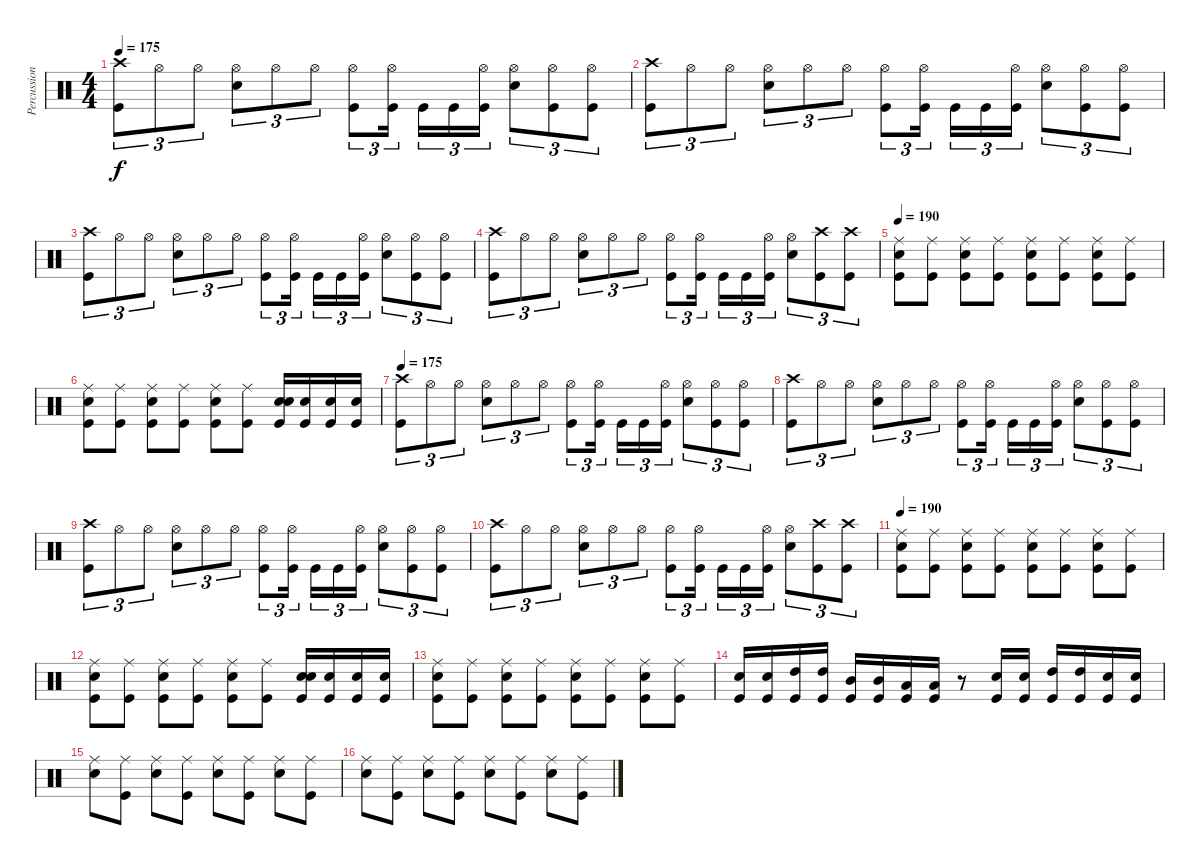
\track ("Percussioni" "Percussion") {instrument percussion}
\staff {score}
\articulation defaults
\ts (4 4)
\tempo 175
\clef neutral
\ks c
("Crash high (hit)" "Kick (hit)").8{tu (3 2) dy f} "Hi-Hat (open)".8{tu (3 2)} "Hi-Hat (open)".8{tu (3 2)} ("Hi-Hat (open)" "Electric Snare (hit)").8{tu (3 2)} "Hi-Hat (open)".8{tu (3 2)} "Hi-Hat (open)".8{tu (3 2)} ("Hi-Hat (open)" "Kick (hit)").8{tu (3 2)} ("Hi-Hat (open)" "Kick (hit)").16{tu (3 2)} "Kick (hit)".16{tu (3 2)} "Kick (hit)".16{tu (3 2)} ("Hi-Hat (open)" "Kick (hit)").16{tu (3 2)} ("Hi-Hat (open)" "Electric Snare (hit)").8{tu (3 2)} ("Hi-Hat (open)" "Kick (hit)").8{tu (3 2)} ("Hi-Hat (open)" "Kick (hit)").8{tu (3 2)} |
("Crash high (hit)" "Kick (hit)").8{tu (3 2)} "Hi-Hat (open)".8{tu (3 2)} "Hi-Hat (open)".8{tu (3 2)} ("Hi-Hat (open)" "Electric Snare (hit)").8{tu (3 2)} "Hi-Hat (open)".8{tu (3 2)} "Hi-Hat (open)".8{tu (3 2)} ("Hi-Hat (open)" "Kick (hit)").8{tu (3 2)} ("Hi-Hat (open)" "Kick (hit)").16{tu (3 2)} "Kick (hit)".16{tu (3 2)} "Kick (hit)".16{tu (3 2)} ("Hi-Hat (open)" "Kick (hit)").16{tu (3 2)} ("Hi-Hat (open)" "Electric Snare (hit)").8{tu (3 2)} ("Hi-Hat (open)" "Kick (hit)").8{tu (3 2)} ("Hi-Hat (open)" "Kick (hit)").8{tu (3 2)} |
("Crash high (hit)" "Kick (hit)").8{tu (3 2)} "Hi-Hat (open)".8{tu (3 2)} "Hi-Hat (open)".8{tu (3 2)} ("Hi-Hat (open)" "Electric Snare (hit)").8{tu (3 2)} "Hi-Hat (open)".8{tu (3 2)} "Hi-Hat (open)".8{tu (3 2)} ("Hi-Hat (open)" "Kick (hit)").8{tu (3 2)} ("Hi-Hat (open)" "Kick (hit)").16{tu (3 2)} "Kick (hit)".16{tu (3 2)} "Kick (hit)".16{tu (3 2)} ("Hi-Hat (open)" "Kick (hit)").16{tu (3 2)} ("Hi-Hat (open)" "Electric Snare (hit)").8{tu (3 2)} ("Hi-Hat (open)" "Kick (hit)").8{tu (3 2)} ("Hi-Hat (open)" "Kick (hit)").8{tu (3 2)} |
("Crash high (hit)" "Kick (hit)").8{tu (3 2)} "Hi-Hat (open)".8{tu (3 2)} "Hi-Hat (open)".8{tu (3 2)} ("Hi-Hat (open)" "Electric Snare (hit)").8{tu (3 2)} "Hi-Hat (open)".8{tu (3 2)} "Hi-Hat (open)".8{tu (3 2)} ("Hi-Hat (open)" "Kick (hit)").8{tu (3 2)} ("Hi-Hat (open)" "Kick (hit)").16{tu (3 2)} "Kick (hit)".16{tu (3 2)} "Kick (hit)".16{tu (3 2)} ("Hi-Hat (open)" "Kick (hit)").16{tu (3 2)} ("Hi-Hat (open)" "Electric Snare (hit)").8{tu (3 2)} ("Crash high (hit)" "Kick (hit)").8{tu (3 2)} ("Crash high (hit)" "Kick (hit)").8{tu (3 2)} |
\tempo 190
("Ride (middle)" "Electric Snare (hit)" "Kick (hit)").8 ("Ride (middle)" "Kick (hit)").8 ("Ride (middle)" "Electric Snare (hit)" "Kick (hit)").8 ("Ride (middle)" "Kick (hit)").8 ("Ride (middle)" "Electric Snare (hit)" "Kick (hit)").8 ("Ride (middle)" "Kick (hit)").8 ("Ride (middle)" "Electric Snare (hit)" "Kick (hit)").8 ("Ride (middle)" "Kick (hit)").8 |
("Ride (middle)" "Electric Snare (hit)" "Kick (hit)").8 ("Ride (middle)" "Kick (hit)").8 ("Ride (middle)" "Electric Snare (hit)" "Kick (hit)").8 ("Ride (middle)" "Kick (hit)").8 ("Ride (middle)" "Electric Snare (hit)" "Kick (hit)").8 ("Ride (middle)" "Kick (hit)").8 ("Electric Snare (hit)" "Electric Snare (hit)" "Kick (hit)").16 ("Electric Snare (hit)" "Kick (hit)").16 ("Snare (hit) 2" "Kick (hit)").16 ("Snare (hit) 2" "Kick (hit)").16 |
\tempo 175
("Crash high (hit)" "Kick (hit)").8{tu (3 2)} "Hi-Hat (open)".8{tu (3 2)} "Hi-Hat (open)".8{tu (3 2)} ("Hi-Hat (open)" "Electric Snare (hit)").8{tu (3 2)} "Hi-Hat (open)".8{tu (3 2)} "Hi-Hat (open)".8{tu (3 2)} ("Hi-Hat (open)" "Kick (hit)").8{tu (3 2)} ("Hi-Hat (open)" "Kick (hit)").16{tu (3 2)} "Kick (hit)".16{tu (3 2)} "Kick (hit)".16{tu (3 2)} ("Hi-Hat (open)" "Kick (hit)").16{tu (3 2)} ("Hi-Hat (open)" "Electric Snare (hit)").8{tu (3 2)} ("Hi-Hat (open)" "Kick (hit)").8{tu (3 2)} ("Hi-Hat (open)" "Kick (hit)").8{tu (3 2)} |
("Crash high (hit)" "Kick (hit)").8{tu (3 2)} "Hi-Hat (open)".8{tu (3 2)} "Hi-Hat (open)".8{tu (3 2)} ("Hi-Hat (open)" "Electric Snare (hit)").8{tu (3 2)} "Hi-Hat (open)".8{tu (3 2)} "Hi-Hat (open)".8{tu (3 2)} ("Hi-Hat (open)" "Kick (hit)").8{tu (3 2)} ("Hi-Hat (open)" "Kick (hit)").16{tu (3 2)} "Kick (hit)".16{tu (3 2)} "Kick (hit)".16{tu (3 2)} ("Hi-Hat (open)" "Kick (hit)").16{tu (3 2)} ("Hi-Hat (open)" "Electric Snare (hit)").8{tu (3 2)} ("Hi-Hat (open)" "Kick (hit)").8{tu (3 2)} ("Hi-Hat (open)" "Kick (hit)").8{tu (3 2)} |
("Crash high (hit)" "Kick (hit)").8{tu (3 2)} "Hi-Hat (open)".8{tu (3 2)} "Hi-Hat (open)".8{tu (3 2)} ("Hi-Hat (open)" "Electric Snare (hit)").8{tu (3 2)} "Hi-Hat (open)".8{tu (3 2)} "Hi-Hat (open)".8{tu (3 2)} ("Hi-Hat (open)" "Kick (hit)").8{tu (3 2)} ("Hi-Hat (open)" "Kick (hit)").16{tu (3 2)} "Kick (hit)".16{tu (3 2)} "Kick (hit)".16{tu (3 2)} ("Hi-Hat (open)" "Kick (hit)").16{tu (3 2)} ("Hi-Hat (open)" "Electric Snare (hit)").8{tu (3 2)} ("Hi-Hat (open)" "Kick (hit)").8{tu (3 2)} ("Hi-Hat (open)" "Kick (hit)").8{tu (3 2)} |
("Crash high (hit)" "Kick (hit)").8{tu (3 2)} "Hi-Hat (open)".8{tu (3 2)} "Hi-Hat (open)".8{tu (3 2)} ("Hi-Hat (open)" "Electric Snare (hit)").8{tu (3 2)} "Hi-Hat (open)".8{tu (3 2)} "Hi-Hat (open)".8{tu (3 2)} ("Hi-Hat (open)" "Kick (hit)").8{tu (3 2)} ("Hi-Hat (open)" "Kick (hit)").16{tu (3 2)} "Kick (hit)".16{tu (3 2)} "Kick (hit)".16{tu (3 2)} ("Hi-Hat (open)" "Kick (hit)").16{tu (3 2)} ("Hi-Hat (open)" "Electric Snare (hit)").8{tu (3 2)} ("Crash high (hit)" "Kick (hit)").8{tu (3 2)} ("Crash high (hit)" "Kick (hit)").8{tu (3 2)} |
\tempo 190
("Ride (middle)" "Electric Snare (hit)" "Kick (hit)").8 ("Ride (middle)" "Kick (hit)").8 ("Ride (middle)" "Electric Snare (hit)" "Kick (hit)").8 ("Ride (middle)" "Kick (hit)").8 ("Ride (middle)" "Electric Snare (hit)" "Kick (hit)").8 ("Ride (middle)" "Kick (hit)").8 ("Ride (middle)" "Electric Snare (hit)" "Kick (hit)").8 ("Ride (middle)" "Kick (hit)").8 |
("Ride (middle)" "Electric Snare (hit)" "Kick (hit)").8 ("Ride (middle)" "Kick (hit)").8 ("Ride (middle)" "Electric Snare (hit)" "Kick (hit)").8 ("Ride (middle)" "Kick (hit)").8 ("Ride (middle)" "Electric Snare (hit)" "Kick (hit)").8 ("Ride (middle)" "Kick (hit)").8 ("Electric Snare (hit)" "Electric Snare (hit)" "Kick (hit)").16 ("Electric Snare (hit)" "Kick (hit)").16 ("Snare (hit) 2" "Kick (hit)").16 ("Snare (hit) 2" "Kick (hit)").16 |
("Ride (middle)" "Electric Snare (hit)" "Kick (hit)").8 ("Ride (middle)" "Kick (hit)").8 ("Ride (middle)" "Electric Snare (hit)" "Kick (hit)").8 ("Ride (middle)" "Kick (hit)").8 ("Ride (middle)" "Electric Snare (hit)" "Kick (hit)").8 ("Ride (middle)" "Kick (hit)").8 ("Ride (middle)" "Electric Snare (hit)" "Kick (hit)").8 ("Ride (middle)" "Kick (hit)").8 |
("Electric Snare (hit)" "Kick (hit)").16 ("Electric Snare (hit)" "Kick (hit)").16 ("High Tom (hit)" "Kick (hit)").16 ("High Tom (hit)" "Kick (hit)").16 ("Mid Tom (hit)" "Kick (hit)").16 ("Mid Tom (hit)" "Kick (hit)").16 ("Low Tom (hit)" "Kick (hit)").16 ("Low Tom (hit)" "Kick (hit)").16 r.8 ("Electric Snare (hit)" "Kick (hit)").16 ("Electric Snare (hit)" "Kick (hit)").16 ("High Tom (hit)" "Kick (hit)").16 ("High Tom (hit)" "Kick (hit)").16 ("Snare (hit) 2" "Kick (hit)").16 ("Snare (hit) 2" "Kick (hit)").16 |
("Ride (middle)" "Electric Snare (hit)").8 ("Ride (middle)" "Kick (hit)").8 ("Ride (middle)" "Electric Snare (hit)").8 ("Ride (middle)" "Kick (hit)").8 ("Ride (middle)" "Electric Snare (hit)").8 ("Ride (middle)" "Kick (hit)").8 ("Ride (middle)" "Electric Snare (hit)").8 ("Ride (middle)" "Kick (hit)").8 |
("Ride (middle)" "Electric Snare (hit)").8 ("Ride (middle)" "Kick (hit)").8 ("Ride (middle)" "Electric Snare (hit)").8 ("Ride (middle)" "Kick (hit)").8 ("Ride (middle)" "Electric Snare (hit)").8 ("Ride (middle)" "Kick (hit)").8 ("Ride (middle)" "Electric Snare (hit)").8 ("Ride (middle)" "Kick (hit)").8
